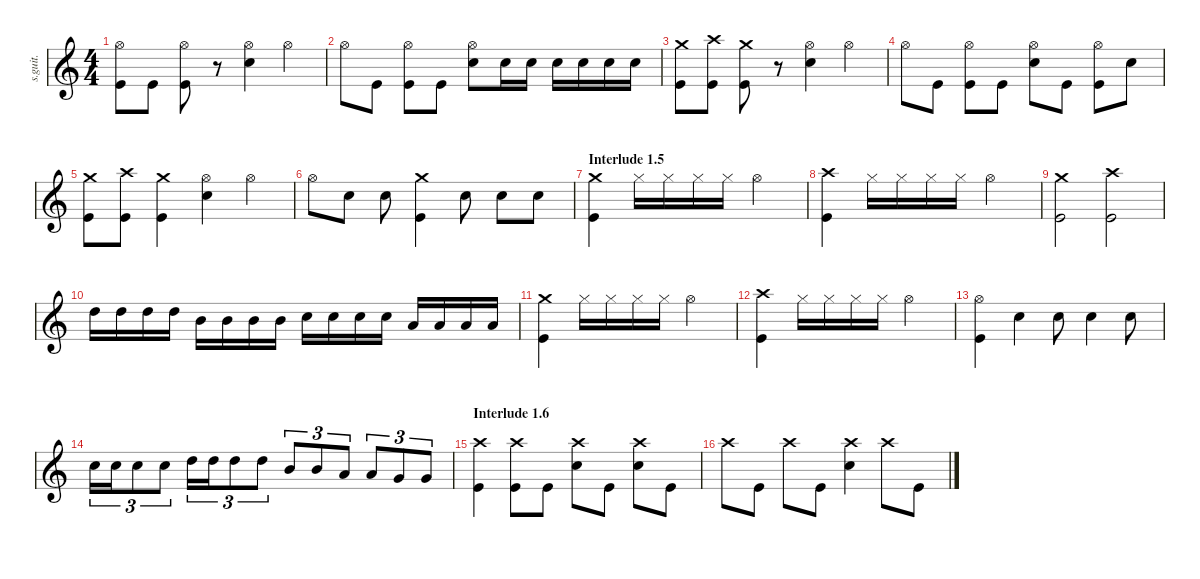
\defaultSystemsLayout 4
\hideDynamics
\bracketExtendMode nobrackets
\track ("Joey Jordison" "s.guit.") {instrument percussion}
\staff {score}
\articulation defaults
\ts (4 4)
\tempo (200 hide)
\clef g2
\ks c
("Hi-Hat (open)" "Kick (hit)").8{lyrics (0 "") lyrics (1 "") lyrics (2 "") lyrics (3 "") lyrics (4 "") dy ff} "Kick (hit)".8{lyrics (0 "") lyrics (1 "") lyrics (2 "") lyrics (3 "") lyrics (4 "")} ("Hi-Hat (open)" "Kick (hit)").8{lyrics (0 "") lyrics (1 "") lyrics (2 "") lyrics (3 "") lyrics (4 "")} r.8 ("Hi-Hat (open)" "Snare (hit) 2").4{lyrics (0 "") lyrics (1 "") lyrics (2 "") lyrics (3 "") lyrics (4 "")} "Hi-Hat (open)".4{lyrics (0 "") lyrics (1 "") lyrics (2 "") lyrics (3 "") lyrics (4 "")} |
"Hi-Hat (open)".8{lyrics (0 "") lyrics (1 "") lyrics (2 "") lyrics (3 "") lyrics (4 "")} "Kick (hit)".8{lyrics (0 "") lyrics (1 "") lyrics (2 "") lyrics (3 "") lyrics (4 "")} ("Hi-Hat (open)" "Kick (hit)").8{lyrics (0 "") lyrics (1 "") lyrics (2 "") lyrics (3 "") lyrics (4 "")} "Kick (hit)".8{lyrics (0 "") lyrics (1 "") lyrics (2 "") lyrics (3 "") lyrics (4 "")} ("Hi-Hat (open)" "Snare (hit) 2").8{lyrics (0 "") lyrics (1 "") lyrics (2 "") lyrics (3 "") lyrics (4 "")} "Snare (hit) 2".16{lyrics (0 "") lyrics (1 "") lyrics (2 "") lyrics (3 "") lyrics (4 "")} "Snare (hit) 2".16{lyrics (0 "") lyrics (1 "") lyrics (2 "") lyrics (3 "") lyrics (4 "")} "Snare (hit) 2".16{lyrics (0 "") lyrics (1 "") lyrics (2 "") lyrics (3 "") lyrics (4 "")} "Snare (hit) 2".16{lyrics (0 "") lyrics (1 "") lyrics (2 "") lyrics (3 "") lyrics (4 "")} "Snare (hit) 2".16{lyrics (0 "") lyrics (1 "") lyrics (2 "") lyrics (3 "") lyrics (4 "")} "Snare (hit) 2".16{lyrics (0 "") lyrics (1 "") lyrics (2 "") lyrics (3 "") lyrics (4 "")} |
("Crash medium (hit)" "Kick (hit)").8{lyrics (0 "") lyrics (1 "") lyrics (2 "") lyrics (3 "") lyrics (4 "")} ("Crash high (hit)" "Kick (hit)").8{lyrics (0 "") lyrics (1 "") lyrics (2 "") lyrics (3 "") lyrics (4 "")} ("Crash medium (hit)" "Kick (hit)").8{lyrics (0 "") lyrics (1 "") lyrics (2 "") lyrics (3 "") lyrics (4 "")} r.8 ("Hi-Hat (open)" "Snare (hit) 2").4{lyrics (0 "") lyrics (1 "") lyrics (2 "") lyrics (3 "") lyrics (4 "")} "Hi-Hat (open)".4{lyrics (0 "") lyrics (1 "") lyrics (2 "") lyrics (3 "") lyrics (4 "")} |
"Hi-Hat (open)".8{lyrics (0 "") lyrics (1 "") lyrics (2 "") lyrics (3 "") lyrics (4 "")} "Kick (hit)".8{lyrics (0 "") lyrics (1 "") lyrics (2 "") lyrics (3 "") lyrics (4 "")} ("Hi-Hat (open)" "Kick (hit)").8{lyrics (0 "") lyrics (1 "") lyrics (2 "") lyrics (3 "") lyrics (4 "")} "Kick (hit)".8{lyrics (0 "") lyrics (1 "") lyrics (2 "") lyrics (3 "") lyrics (4 "")} ("Hi-Hat (open)" "Snare (hit) 2").8{lyrics (0 "") lyrics (1 "") lyrics (2 "") lyrics (3 "") lyrics (4 "")} "Kick (hit)".8{lyrics (0 "") lyrics (1 "") lyrics (2 "") lyrics (3 "") lyrics (4 "")} ("Hi-Hat (open)" "Kick (hit)").8{lyrics (0 "") lyrics (1 "") lyrics (2 "") lyrics (3 "") lyrics (4 "")} "Snare (hit) 2".8{lyrics (0 "") lyrics (1 "") lyrics (2 "") lyrics (3 "") lyrics (4 "")} |
("Crash medium (hit)" "Kick (hit)").8{lyrics (0 "") lyrics (1 "") lyrics (2 "") lyrics (3 "") lyrics (4 "")} ("Crash high (hit)" "Kick (hit)").8{lyrics (0 "") lyrics (1 "") lyrics (2 "") lyrics (3 "") lyrics (4 "")} ("Crash medium (hit)" "Kick (hit)").4{lyrics (0 "") lyrics (1 "") lyrics (2 "") lyrics (3 "") lyrics (4 "")} ("Hi-Hat (open)" "Snare (hit) 2").4{lyrics (0 "") lyrics (1 "") lyrics (2 "") lyrics (3 "") lyrics (4 "")} "Hi-Hat (open)".4{lyrics (0 "") lyrics (1 "") lyrics (2 "") lyrics (3 "") lyrics (4 "")} |
"Hi-Hat (open)".8{lyrics (0 "") lyrics (1 "") lyrics (2 "") lyrics (3 "") lyrics (4 "")} "Snare (hit) 2".8{lyrics (0 "") lyrics (1 "") lyrics (2 "") lyrics (3 "") lyrics (4 "")} "Snare (hit) 2".8{lyrics (0 "") lyrics (1 "") lyrics (2 "") lyrics (3 "") lyrics (4 "")} ("Crash medium (hit)" "Kick (hit)").4{lyrics (0 "") lyrics (1 "") lyrics (2 "") lyrics (3 "") lyrics (4 "")} "Snare (hit) 2".8{lyrics (0 "") lyrics (1 "") lyrics (2 "") lyrics (3 "") lyrics (4 "")} "Snare (hit) 2".8{lyrics (0 "") lyrics (1 "") lyrics (2 "") lyrics (3 "") lyrics (4 "")} "Snare (hit) 2".8{lyrics (0 "") lyrics (1 "") lyrics (2 "") lyrics (3 "") lyrics (4 "")} |
\section ("" "Interlude 1.5")
("Crash medium (hit)" "Kick (hit)").4{lyrics (0 "") lyrics (1 "") lyrics (2 "") lyrics (3 "") lyrics (4 "")} "Hi-Hat (closed)".16{lyrics (0 "") lyrics (1 "") lyrics (2 "") lyrics (3 "") lyrics (4 "")} "Hi-Hat (closed)".16{lyrics (0 "") lyrics (1 "") lyrics (2 "") lyrics (3 "") lyrics (4 "")} "Hi-Hat (closed)".16{lyrics (0 "") lyrics (1 "") lyrics (2 "") lyrics (3 "") lyrics (4 "")} "Hi-Hat (closed)".16{lyrics (0 "") lyrics (1 "") lyrics (2 "") lyrics (3 "") lyrics (4 "")} "Hi-Hat (open)".2{lyrics (0 "") lyrics (1 "") lyrics (2 "") lyrics (3 "") lyrics (4 "")} |
("Crash high (hit)" "Kick (hit)").4{lyrics (0 "") lyrics (1 "") lyrics (2 "") lyrics (3 "") lyrics (4 "")} "Hi-Hat (closed)".16{lyrics (0 "") lyrics (1 "") lyrics (2 "") lyrics (3 "") lyrics (4 "")} "Hi-Hat (closed)".16{lyrics (0 "") lyrics (1 "") lyrics (2 "") lyrics (3 "") lyrics (4 "")} "Hi-Hat (closed)".16{lyrics (0 "") lyrics (1 "") lyrics (2 "") lyrics (3 "") lyrics (4 "")} "Hi-Hat (closed)".16{lyrics (0 "") lyrics (1 "") lyrics (2 "") lyrics (3 "") lyrics (4 "")} "Hi-Hat (open)".2{lyrics (0 "") lyrics (1 "") lyrics (2 "") lyrics (3 "") lyrics (4 "")} |
("Crash medium (hit)" "Kick (hit)").2{lyrics (0 "") lyrics (1 "") lyrics (2 "") lyrics (3 "") lyrics (4 "")} ("Crash high (hit)" "Kick (hit)").2{lyrics (0 "") lyrics (1 "") lyrics (2 "") lyrics (3 "") lyrics (4 "")} |
"High Tom (hit)".16{lyrics (0 "") lyrics (1 "") lyrics (2 "") lyrics (3 "") lyrics (4 "")} "High Tom (hit)".16{lyrics (0 "") lyrics (1 "") lyrics (2 "") lyrics (3 "") lyrics (4 "")} "High Tom (hit)".16{lyrics (0 "") lyrics (1 "") lyrics (2 "") lyrics (3 "") lyrics (4 "")} "High Tom (hit)".16{lyrics (0 "") lyrics (1 "") lyrics (2 "") lyrics (3 "") lyrics (4 "")} "Mid Tom (hit)".16{lyrics (0 "") lyrics (1 "") lyrics (2 "") lyrics (3 "") lyrics (4 "")} "Mid Tom (hit)".16{lyrics (0 "") lyrics (1 "") lyrics (2 "") lyrics (3 "") lyrics (4 "")} "Mid Tom (hit)".16{lyrics (0 "") lyrics (1 "") lyrics (2 "") lyrics (3 "") lyrics (4 "")} "Mid Tom (hit)".16{lyrics (0 "") lyrics (1 "") lyrics (2 "") lyrics (3 "") lyrics (4 "")} "Snare (hit) 2".16{lyrics (0 "") lyrics (1 "") lyrics (2 "") lyrics (3 "") lyrics (4 "")} "Snare (hit) 2".16{lyrics (0 "") lyrics (1 "") lyrics (2 "") lyrics (3 "") lyrics (4 "")} "Snare (hit) 2".16{lyrics (0 "") lyrics (1 "") lyrics (2 "") lyrics (3 "") lyrics (4 "")} "Snare (hit) 2".16{lyrics (0 "") lyrics (1 "") lyrics (2 "") lyrics (3 "") lyrics (4 "")} "Low Tom (hit)".16{lyrics (0 "") lyrics (1 "") lyrics (2 "") lyrics (3 "") lyrics (4 "")} "Low Tom (hit)".16{lyrics (0 "") lyrics (1 "") lyrics (2 "") lyrics (3 "") lyrics (4 "")} "Low Tom (hit)".16{lyrics (0 "") lyrics (1 "") lyrics (2 "") lyrics (3 "") lyrics (4 "")} "Low Tom (hit)".16{lyrics (0 "") lyrics (1 "") lyrics (2 "") lyrics (3 "") lyrics (4 "")} |
("Crash medium (hit)" "Kick (hit)").4{lyrics (0 "") lyrics (1 "") lyrics (2 "") lyrics (3 "") lyrics (4 "")} "Hi-Hat (closed)".16{lyrics (0 "") lyrics (1 "") lyrics (2 "") lyrics (3 "") lyrics (4 "")} "Hi-Hat (closed)".16{lyrics (0 "") lyrics (1 "") lyrics (2 "") lyrics (3 "") lyrics (4 "")} "Hi-Hat (closed)".16{lyrics (0 "") lyrics (1 "") lyrics (2 "") lyrics (3 "") lyrics (4 "")} "Hi-Hat (closed)".16{lyrics (0 "") lyrics (1 "") lyrics (2 "") lyrics (3 "") lyrics (4 "")} "Hi-Hat (open)".2{lyrics (0 "") lyrics (1 "") lyrics (2 "") lyrics (3 "") lyrics (4 "")} |
("Crash high (hit)" "Kick (hit)").4{lyrics (0 "") lyrics (1 "") lyrics (2 "") lyrics (3 "") lyrics (4 "")} "Hi-Hat (closed)".16{lyrics (0 "") lyrics (1 "") lyrics (2 "") lyrics (3 "") lyrics (4 "")} "Hi-Hat (closed)".16{lyrics (0 "") lyrics (1 "") lyrics (2 "") lyrics (3 "") lyrics (4 "")} "Hi-Hat (closed)".16{lyrics (0 "") lyrics (1 "") lyrics (2 "") lyrics (3 "") lyrics (4 "")} "Hi-Hat (closed)".16{lyrics (0 "") lyrics (1 "") lyrics (2 "") lyrics (3 "") lyrics (4 "")} "Hi-Hat (open)".2{lyrics (0 "") lyrics (1 "") lyrics (2 "") lyrics (3 "") lyrics (4 "")} |
("Hi-Hat (open)" "Kick (hit)").4{lyrics (0 "") lyrics (1 "") lyrics (2 "") lyrics (3 "") lyrics (4 "")} "Snare (hit) 2".4{lyrics (0 "") lyrics (1 "") lyrics (2 "") lyrics (3 "") lyrics (4 "")} "Snare (hit) 2".8{lyrics (0 "") lyrics (1 "") lyrics (2 "") lyrics (3 "") lyrics (4 "")} "Snare (hit) 2".4{lyrics (0 "") lyrics (1 "") lyrics (2 "") lyrics (3 "") lyrics (4 "")} "Snare (hit) 2".8{lyrics (0 "") lyrics (1 "") lyrics (2 "") lyrics (3 "") lyrics (4 "")} |
"Snare (hit) 2".16{tu (3 2) lyrics (0 "") lyrics (1 "") lyrics (2 "") lyrics (3 "") lyrics (4 "")} "Snare (hit) 2".16{tu (3 2) lyrics (0 "") lyrics (1 "") lyrics (2 "") lyrics (3 "") lyrics (4 "")} "Snare (hit) 2".8{tu (3 2) lyrics (0 "") lyrics (1 "") lyrics (2 "") lyrics (3 "") lyrics (4 "")} "Snare (hit) 2".8{tu (3 2) lyrics (0 "") lyrics (1 "") lyrics (2 "") lyrics (3 "") lyrics (4 "")} "High Tom (hit)".16{tu (3 2) lyrics (0 "") lyrics (1 "") lyrics (2 "") lyrics (3 "") lyrics (4 "")} "High Tom (hit)".16{tu (3 2) lyrics (0 "") lyrics (1 "") lyrics (2 "") lyrics (3 "") lyrics (4 "")} "High Tom (hit)".8{tu (3 2) lyrics (0 "") lyrics (1 "") lyrics (2 "") lyrics (3 "") lyrics (4 "")} "High Tom (hit)".8{tu (3 2) lyrics (0 "") lyrics (1 "") lyrics (2 "") lyrics (3 "") lyrics (4 "")} "Mid Tom (hit)".8{tu (3 2) lyrics (0 "") lyrics (1 "") lyrics (2 "") lyrics (3 "") lyrics (4 "")} "Mid Tom (hit)".8{tu (3 2) lyrics (0 "") lyrics (1 "") lyrics (2 "") lyrics (3 "") lyrics (4 "")} "Low Tom (hit)".8{tu (3 2) lyrics (0 "") lyrics (1 "") lyrics (2 "") lyrics (3 "") lyrics (4 "")} "Low Tom (hit)".8{tu (3 2) lyrics (0 "") lyrics (1 "") lyrics (2 "") lyrics (3 "") lyrics (4 "")} "Very Low Tom (hit)".8{tu (3 2) lyrics (0 "") lyrics (1 "") lyrics (2 "") lyrics (3 "") lyrics (4 "")} "Very Low Tom (hit)".8{tu (3 2) lyrics (0 "") lyrics (1 "") lyrics (2 "") lyrics (3 "") lyrics (4 "")} |
\section ("" "Interlude 1.6")
("Crash high (hit)" "Kick (hit)").4{lyrics (0 "") lyrics (1 "") lyrics (2 "") lyrics (3 "") lyrics (4 "")} ("Crash high (hit)" "Kick (hit)").8{lyrics (0 "") lyrics (1 "") lyrics (2 "") lyrics (3 "") lyrics (4 "")} "Kick (hit)".8{lyrics (0 "") lyrics (1 "") lyrics (2 "") lyrics (3 "") lyrics (4 "")} ("Crash high (hit)" "Snare (hit) 2").8{lyrics (0 "") lyrics (1 "") lyrics (2 "") lyrics (3 "") lyrics (4 "")} "Kick (hit)".8{lyrics (0 "") lyrics (1 "") lyrics (2 "") lyrics (3 "") lyrics (4 "")} ("Crash high (hit)" "Snare (hit) 2").8{lyrics (0 "") lyrics (1 "") lyrics (2 "") lyrics (3 "") lyrics (4 "")} "Kick (hit)".8{lyrics (0 "") lyrics (1 "") lyrics (2 "") lyrics (3 "") lyrics (4 "")} |
"Crash high (hit)".8{lyrics (0 "") lyrics (1 "") lyrics (2 "") lyrics (3 "") lyrics (4 "")} "Kick (hit)".8{lyrics (0 "") lyrics (1 "") lyrics (2 "") lyrics (3 "") lyrics (4 "")} "Crash high (hit)".8{lyrics (0 "") lyrics (1 "") lyrics (2 "") lyrics (3 "") lyrics (4 "")} "Kick (hit)".8{lyrics (0 "") lyrics (1 "") lyrics (2 "") lyrics (3 "") lyrics (4 "")} ("Crash high (hit)" "Snare (hit) 2").4{lyrics (0 "") lyrics (1 "") lyrics (2 "") lyrics (3 "") lyrics (4 "")} "Crash high (hit)".8{lyrics (0 "") lyrics (1 "") lyrics (2 "") lyrics (3 "") lyrics (4 "")} "Kick (hit)".8{lyrics (0 "") lyrics (1 "") lyrics (2 "") lyrics (3 "") lyrics (4 "")}
